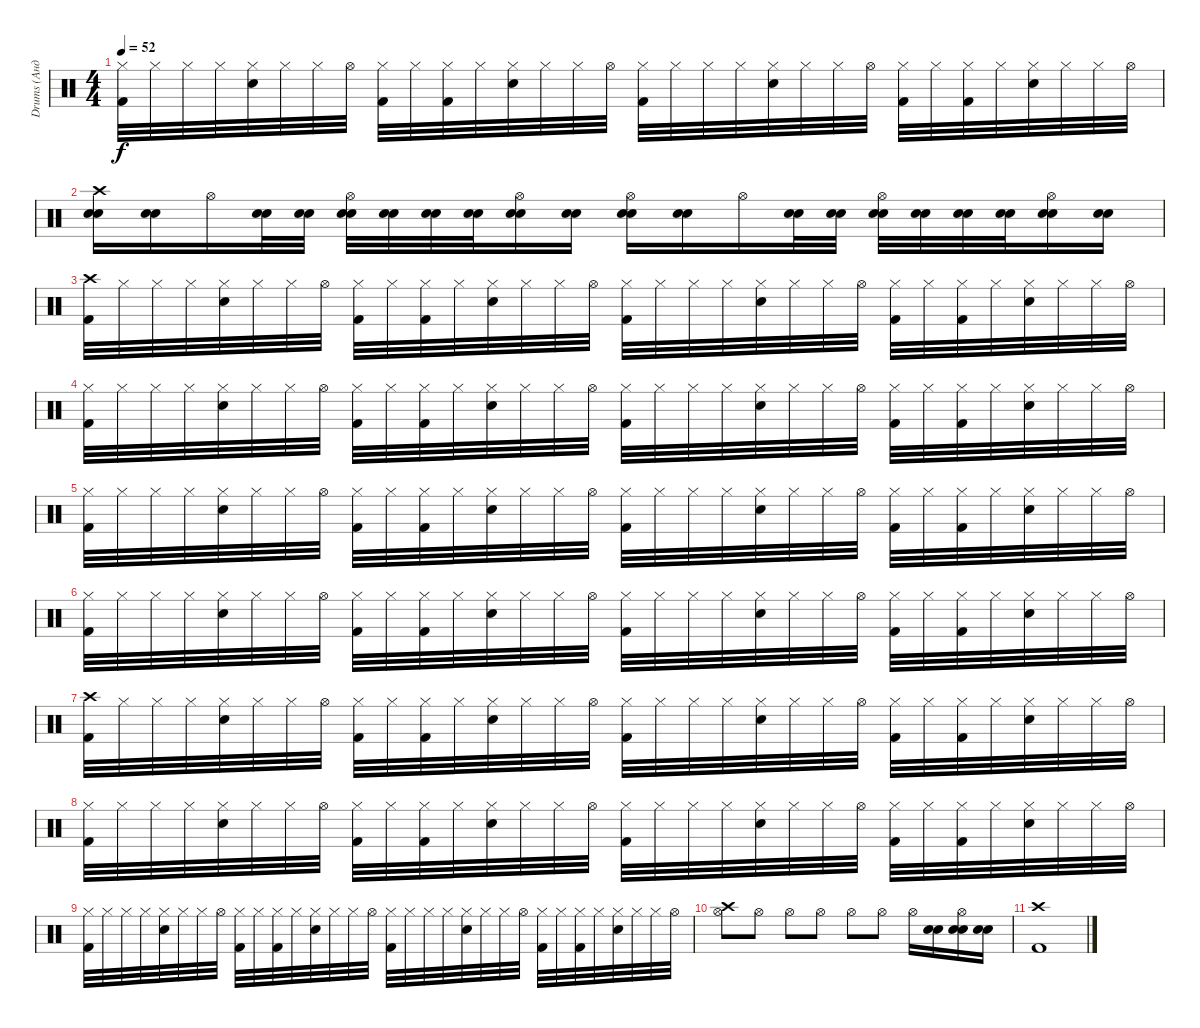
\track ("Drums (Андрей)" "Drums (Анд") {instrument percussion}
\staff {score}
\articulation defaults
\ts (4 4)
\tempo 52
\clef neutral
\ks c
("Hi-Hat (closed)" "Kick (hit) 2").32{dy f} "Hi-Hat (closed)".32 "Hi-Hat (closed)".32 "Hi-Hat (closed)".32 ("Hi-Hat (closed)" "Snare (hit) 2").32 "Hi-Hat (closed)".32 "Hi-Hat (closed)".32 "Hi-Hat (open)".32 ("Hi-Hat (closed)" "Kick (hit) 2").32 "Hi-Hat (closed)".32 ("Hi-Hat (closed)" "Kick (hit) 2").32 "Hi-Hat (closed)".32 ("Hi-Hat (closed)" "Snare (hit) 2").32 "Hi-Hat (closed)".32 "Hi-Hat (closed)".32 "Hi-Hat (open)".32 ("Hi-Hat (closed)" "Kick (hit) 2").32 "Hi-Hat (closed)".32 "Hi-Hat (closed)".32 "Hi-Hat (closed)".32 ("Hi-Hat (closed)" "Snare (hit) 2").32 "Hi-Hat (closed)".32 "Hi-Hat (closed)".32 "Hi-Hat (open)".32 ("Hi-Hat (closed)" "Kick (hit) 2").32 "Hi-Hat (closed)".32 ("Hi-Hat (closed)" "Kick (hit) 2").32 "Hi-Hat (closed)".32 ("Hi-Hat (closed)" "Snare (hit) 2").32 "Hi-Hat (closed)".32 "Hi-Hat (closed)".32 "Hi-Hat (open)".32 |
("Crash high (hit)" "Electric Snare (hit)" "Snare (hit) 2").16 ("Electric Snare (hit)" "Snare (hit) 2").16 "Hi-Hat (open)".16 ("Electric Snare (hit)" "Snare (hit) 2").32 ("Electric Snare (hit)" "Snare (hit) 2").32 ("Hi-Hat (open)" "Electric Snare (hit)" "Snare (hit) 2").32 ("Electric Snare (hit)" "Snare (hit) 2").32 ("Electric Snare (hit)" "Snare (hit) 2").32 ("Electric Snare (hit)" "Snare (hit) 2").32 ("Hi-Hat (open)" "Electric Snare (hit)" "Snare (hit) 2").16 ("Electric Snare (hit)" "Snare (hit) 2").16 ("Hi-Hat (open)" "Electric Snare (hit)" "Snare (hit) 2").16 ("Electric Snare (hit)" "Snare (hit) 2").16 "Hi-Hat (open)".16 ("Electric Snare (hit)" "Snare (hit) 2").32 ("Electric Snare (hit)" "Snare (hit) 2").32 ("Hi-Hat (open)" "Electric Snare (hit)" "Snare (hit) 2").32 ("Electric Snare (hit)" "Snare (hit) 2").32 ("Electric Snare (hit)" "Snare (hit) 2").32 ("Electric Snare (hit)" "Snare (hit) 2").32 ("Hi-Hat (open)" "Electric Snare (hit)" "Snare (hit) 2").16 ("Electric Snare (hit)" "Snare (hit) 2").16 |
("Crash high (hit)" "Kick (hit) 2").32 "Hi-Hat (closed)".32 "Hi-Hat (closed)".32 "Hi-Hat (closed)".32 ("Hi-Hat (closed)" "Snare (hit) 2").32 "Hi-Hat (closed)".32 "Hi-Hat (closed)".32 "Hi-Hat (open)".32 ("Hi-Hat (closed)" "Kick (hit) 2").32 "Hi-Hat (closed)".32 ("Hi-Hat (closed)" "Kick (hit) 2").32 "Hi-Hat (closed)".32 ("Hi-Hat (closed)" "Snare (hit) 2").32 "Hi-Hat (closed)".32 "Hi-Hat (closed)".32 "Hi-Hat (open)".32 ("Hi-Hat (closed)" "Kick (hit) 2").32 "Hi-Hat (closed)".32 "Hi-Hat (closed)".32 "Hi-Hat (closed)".32 ("Hi-Hat (closed)" "Snare (hit) 2").32 "Hi-Hat (closed)".32 "Hi-Hat (closed)".32 "Hi-Hat (open)".32 ("Hi-Hat (closed)" "Kick (hit) 2").32 "Hi-Hat (closed)".32 ("Hi-Hat (closed)" "Kick (hit) 2").32 "Hi-Hat (closed)".32 ("Hi-Hat (closed)" "Snare (hit) 2").32 "Hi-Hat (closed)".32 "Hi-Hat (closed)".32 "Hi-Hat (open)".32 |
("Hi-Hat (closed)" "Kick (hit) 2").32 "Hi-Hat (closed)".32 "Hi-Hat (closed)".32 "Hi-Hat (closed)".32 ("Hi-Hat (closed)" "Snare (hit) 2").32 "Hi-Hat (closed)".32 "Hi-Hat (closed)".32 "Hi-Hat (open)".32 ("Hi-Hat (closed)" "Kick (hit) 2").32 "Hi-Hat (closed)".32 ("Hi-Hat (closed)" "Kick (hit) 2").32 "Hi-Hat (closed)".32 ("Hi-Hat (closed)" "Snare (hit) 2").32 "Hi-Hat (closed)".32 "Hi-Hat (closed)".32 "Hi-Hat (open)".32 ("Hi-Hat (closed)" "Kick (hit) 2").32 "Hi-Hat (closed)".32 "Hi-Hat (closed)".32 "Hi-Hat (closed)".32 ("Hi-Hat (closed)" "Snare (hit) 2").32 "Hi-Hat (closed)".32 "Hi-Hat (closed)".32 "Hi-Hat (open)".32 ("Hi-Hat (closed)" "Kick (hit) 2").32 "Hi-Hat (closed)".32 ("Hi-Hat (closed)" "Kick (hit) 2").32 "Hi-Hat (closed)".32 ("Hi-Hat (closed)" "Snare (hit) 2").32 "Hi-Hat (closed)".32 "Hi-Hat (closed)".32 "Hi-Hat (open)".32 |
("Hi-Hat (closed)" "Kick (hit) 2").32 "Hi-Hat (closed)".32 "Hi-Hat (closed)".32 "Hi-Hat (closed)".32 ("Hi-Hat (closed)" "Snare (hit) 2").32 "Hi-Hat (closed)".32 "Hi-Hat (closed)".32 "Hi-Hat (open)".32 ("Hi-Hat (closed)" "Kick (hit) 2").32 "Hi-Hat (closed)".32 ("Hi-Hat (closed)" "Kick (hit) 2").32 "Hi-Hat (closed)".32 ("Hi-Hat (closed)" "Snare (hit) 2").32 "Hi-Hat (closed)".32 "Hi-Hat (closed)".32 "Hi-Hat (open)".32 ("Hi-Hat (closed)" "Kick (hit) 2").32 "Hi-Hat (closed)".32 "Hi-Hat (closed)".32 "Hi-Hat (closed)".32 ("Hi-Hat (closed)" "Snare (hit) 2").32 "Hi-Hat (closed)".32 "Hi-Hat (closed)".32 "Hi-Hat (open)".32 ("Hi-Hat (closed)" "Kick (hit) 2").32 "Hi-Hat (closed)".32 ("Hi-Hat (closed)" "Kick (hit) 2").32 "Hi-Hat (closed)".32 ("Hi-Hat (closed)" "Snare (hit) 2").32 "Hi-Hat (closed)".32 "Hi-Hat (closed)".32 "Hi-Hat (open)".32 |
("Hi-Hat (closed)" "Kick (hit) 2").32 "Hi-Hat (closed)".32 "Hi-Hat (closed)".32 "Hi-Hat (closed)".32 ("Hi-Hat (closed)" "Snare (hit) 2").32 "Hi-Hat (closed)".32 "Hi-Hat (closed)".32 "Hi-Hat (open)".32 ("Hi-Hat (closed)" "Kick (hit) 2").32 "Hi-Hat (closed)".32 ("Hi-Hat (closed)" "Kick (hit) 2").32 "Hi-Hat (closed)".32 ("Hi-Hat (closed)" "Snare (hit) 2").32 "Hi-Hat (closed)".32 "Hi-Hat (closed)".32 "Hi-Hat (open)".32 ("Hi-Hat (closed)" "Kick (hit) 2").32 "Hi-Hat (closed)".32 "Hi-Hat (closed)".32 "Hi-Hat (closed)".32 ("Hi-Hat (closed)" "Snare (hit) 2").32 "Hi-Hat (closed)".32 "Hi-Hat (closed)".32 "Hi-Hat (open)".32 ("Hi-Hat (closed)" "Kick (hit) 2").32 "Hi-Hat (closed)".32 ("Hi-Hat (closed)" "Kick (hit) 2").32 "Hi-Hat (closed)".32 ("Hi-Hat (closed)" "Snare (hit) 2").32 "Hi-Hat (closed)".32 "Hi-Hat (closed)".32 "Hi-Hat (open)".32 |
("Crash high (hit)" "Kick (hit) 2").32 "Hi-Hat (closed)".32 "Hi-Hat (closed)".32 "Hi-Hat (closed)".32 ("Hi-Hat (closed)" "Snare (hit) 2").32 "Hi-Hat (closed)".32 "Hi-Hat (closed)".32 "Hi-Hat (open)".32 ("Hi-Hat (closed)" "Kick (hit) 2").32 "Hi-Hat (closed)".32 ("Hi-Hat (closed)" "Kick (hit) 2").32 "Hi-Hat (closed)".32 ("Hi-Hat (closed)" "Snare (hit) 2").32 "Hi-Hat (closed)".32 "Hi-Hat (closed)".32 "Hi-Hat (open)".32 ("Hi-Hat (closed)" "Kick (hit) 2").32 "Hi-Hat (closed)".32 "Hi-Hat (closed)".32 "Hi-Hat (closed)".32 ("Hi-Hat (closed)" "Snare (hit) 2").32 "Hi-Hat (closed)".32 "Hi-Hat (closed)".32 "Hi-Hat (open)".32 ("Hi-Hat (closed)" "Kick (hit) 2").32 "Hi-Hat (closed)".32 ("Hi-Hat (closed)" "Kick (hit) 2").32 "Hi-Hat (closed)".32 ("Hi-Hat (closed)" "Snare (hit) 2").32 "Hi-Hat (closed)".32 "Hi-Hat (closed)".32 "Hi-Hat (open)".32 |
("Hi-Hat (closed)" "Kick (hit) 2").32 "Hi-Hat (closed)".32 "Hi-Hat (closed)".32 "Hi-Hat (closed)".32 ("Hi-Hat (closed)" "Snare (hit) 2").32 "Hi-Hat (closed)".32 "Hi-Hat (closed)".32 "Hi-Hat (open)".32 ("Hi-Hat (closed)" "Kick (hit) 2").32 "Hi-Hat (closed)".32 ("Hi-Hat (closed)" "Kick (hit) 2").32 "Hi-Hat (closed)".32 ("Hi-Hat (closed)" "Snare (hit) 2").32 "Hi-Hat (closed)".32 "Hi-Hat (closed)".32 "Hi-Hat (open)".32 ("Hi-Hat (closed)" "Kick (hit) 2").32 "Hi-Hat (closed)".32 "Hi-Hat (closed)".32 "Hi-Hat (closed)".32 ("Hi-Hat (closed)" "Snare (hit) 2").32 "Hi-Hat (closed)".32 "Hi-Hat (closed)".32 "Hi-Hat (open)".32 ("Hi-Hat (closed)" "Kick (hit) 2").32 "Hi-Hat (closed)".32 ("Hi-Hat (closed)" "Kick (hit) 2").32 "Hi-Hat (closed)".32 ("Hi-Hat (closed)" "Snare (hit) 2").32 "Hi-Hat (closed)".32 "Hi-Hat (closed)".32 "Hi-Hat (open)".32 |
("Hi-Hat (closed)" "Kick (hit) 2").32 "Hi-Hat (closed)".32 "Hi-Hat (closed)".32 "Hi-Hat (closed)".32 ("Hi-Hat (closed)" "Snare (hit) 2").32 "Hi-Hat (closed)".32 "Hi-Hat (closed)".32 "Hi-Hat (open)".32 ("Hi-Hat (closed)" "Kick (hit) 2").32 "Hi-Hat (closed)".32 ("Hi-Hat (closed)" "Kick (hit) 2").32 "Hi-Hat (closed)".32 ("Hi-Hat (closed)" "Snare (hit) 2").32 "Hi-Hat (closed)".32 "Hi-Hat (closed)".32 "Hi-Hat (open)".32 ("Hi-Hat (closed)" "Kick (hit) 2").32 "Hi-Hat (closed)".32 "Hi-Hat (closed)".32 "Hi-Hat (closed)".32 ("Hi-Hat (closed)" "Snare (hit) 2").32 "Hi-Hat (closed)".32 "Hi-Hat (closed)".32 "Hi-Hat (open)".32 ("Hi-Hat (closed)" "Kick (hit) 2").32 "Hi-Hat (closed)".32 ("Hi-Hat (closed)" "Kick (hit) 2").32 "Hi-Hat (closed)".32 ("Hi-Hat (closed)" "Snare (hit) 2").32 "Hi-Hat (closed)".32 "Hi-Hat (closed)".32 "Hi-Hat (open)".32 |
("Crash high (hit)" "Hi-Hat (open)").8 "Hi-Hat (open)".8 "Hi-Hat (open)".8 "Hi-Hat (open)".8 "Hi-Hat (open)".8 "Hi-Hat (open)".8 "Hi-Hat (open)".16 ("Electric Snare (hit)" "Snare (hit) 2").16 ("Hi-Hat (open)" "Electric Snare (hit)" "Snare (hit) 2").16 ("Electric Snare (hit)" "Snare (hit) 2").16 |
("Crash high (hit)" "Kick (hit) 2").1
